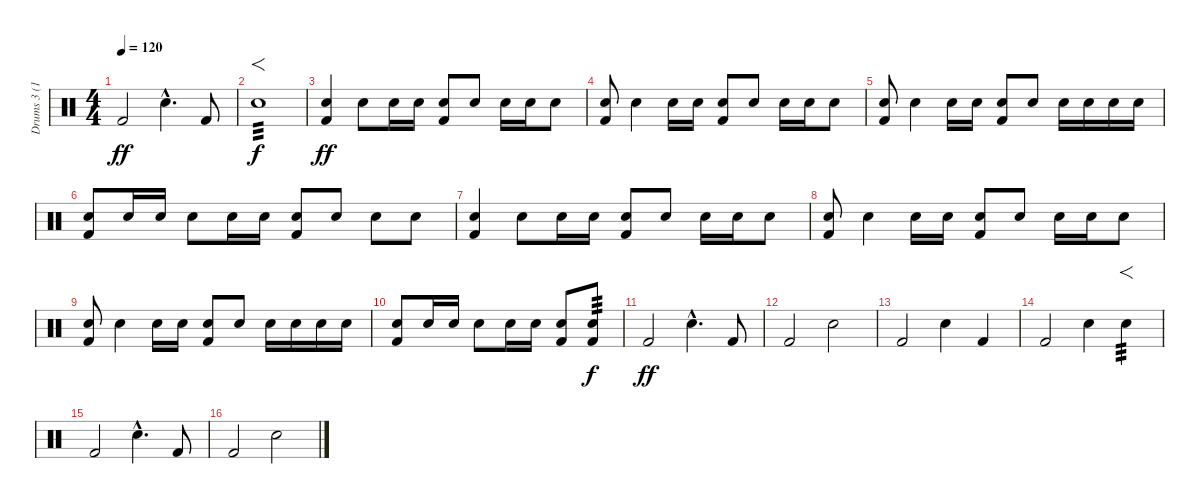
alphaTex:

\track ("Drums 3 (16)" "Drums 3 (1") {instrument percussion}
\staff {score}
\articulation defaults
\ts (4 4)
\tempo 120
\clef neutral
\ks c "Kick (hit) 2".2{dy ff} "Snare (hit) 2"{hac}.4{d} "Kick (hit) 2".8
|
"Snare (hit) 2".1{f tp 3 dy f} |
("Kick (hit) 2" "Electric Snare (hit)").4{dy ff} "Electric Snare (hit)".8 "Electric Snare (hit)".16 "Electric Snare (hit)".16 ("Kick (hit) 2" "Electric Snare (hit)").8 "Electric Snare (hit)".8 "Electric Snare (hit)".16 "Electric Snare (hit)".16 "Electric Snare (hit)".8 |
("Kick (hit) 2" "Electric Snare (hit)").8 "Electric Snare (hit)".4 "Electric Snare (hit)".16 "Electric Snare (hit)".16 ("Electric Snare (hit)" "Kick (hit) 2").8 "Electric Snare (hit)".8 "Electric Snare (hit)".16 "Electric Snare (hit)".16 "Electric Snare (hit)".8 |
("Kick (hit) 2" "Electric Snare (hit)").8 "Electric Snare (hit)".4 "Electric Snare (hit)".16 "Electric Snare (hit)".16 ("Kick (hit) 2" "Electric Snare (hit)").8 "Electric Snare (hit)".8 "Electric Snare (hit)".16 "Electric Snare (hit)".16 "Electric Snare (hit)".16 "Electric Snare (hit)".16 |
("Kick (hit) 2" "Electric Snare (hit)").8 "Electric Snare (hit)".16 "Electric Snare (hit)".16 "Electric Snare (hit)".8 "Electric Snare (hit)".16 "Electric Snare (hit)".16 ("Kick (hit) 2" "Electric Snare (hit)").8 "Electric Snare (hit)".8 "Electric Snare (hit)".8 "Electric Snare (hit)".8 |
("Kick (hit) 2" "Electric Snare (hit)").4 "Electric Snare (hit)".8 "Electric Snare (hit)".16 "Electric Snare (hit)".16 ("Kick (hit) 2" "Electric Snare (hit)").8 "Electric Snare (hit)".8 "Electric Snare (hit)".16 "Electric Snare (hit)".16 "Electric Snare (hit)".8 |
("Kick (hit) 2" "Electric Snare (hit)").8 "Electric Snare (hit)".4 "Electric Snare (hit)".16 "Electric Snare (hit)".16 ("Electric Snare (hit)" "Kick (hit) 2").8 "Electric Snare (hit)".8 "Electric Snare (hit)".16 "Electric Snare (hit)".16 "Electric Snare (hit)".8 |
("Kick (hit) 2" "Electric Snare (hit)").8 "Electric Snare (hit)".4 "Electric Snare (hit)".16 "Electric Snare (hit)".16 ("Kick (hit) 2" "Electric Snare (hit)").8 "Electric Snare (hit)".8 "Electric Snare (hit)".16 "Electric Snare (hit)".16 "Electric Snare (hit)".16 "Electric Snare (hit)".16 |
("Kick (hit) 2" "Electric Snare (hit)").8 "Electric Snare (hit)".16 "Electric Snare (hit)".16 "Electric Snare (hit)".8 "Electric Snare (hit)".16 "Electric Snare (hit)".16 ("Kick (hit) 2" "Electric Snare (hit)").8 ("Snare (hit) 2" "Kick (hit) 2").8{tp 3 dy f} |
"Kick (hit) 2".2{dy ff} "Snare (hit) 2"{hac}.4{d} "Kick (hit) 2".8 |
"Kick (hit) 2".2 "Snare (hit) 2".2 |
"Kick (hit) 2".2 "Snare (hit) 2".4 "Kick (hit) 2".4 |
"Kick (hit) 2".2 "Snare (hit) 2".4 "Snare (hit) 2".4{f tp 3} |
"Kick (hit) 2".2 "Snare (hit) 2"{hac}.4{d} "Kick (hit) 2".8 |
"Kick (hit) 2".2 "Snare (hit) 2".2
